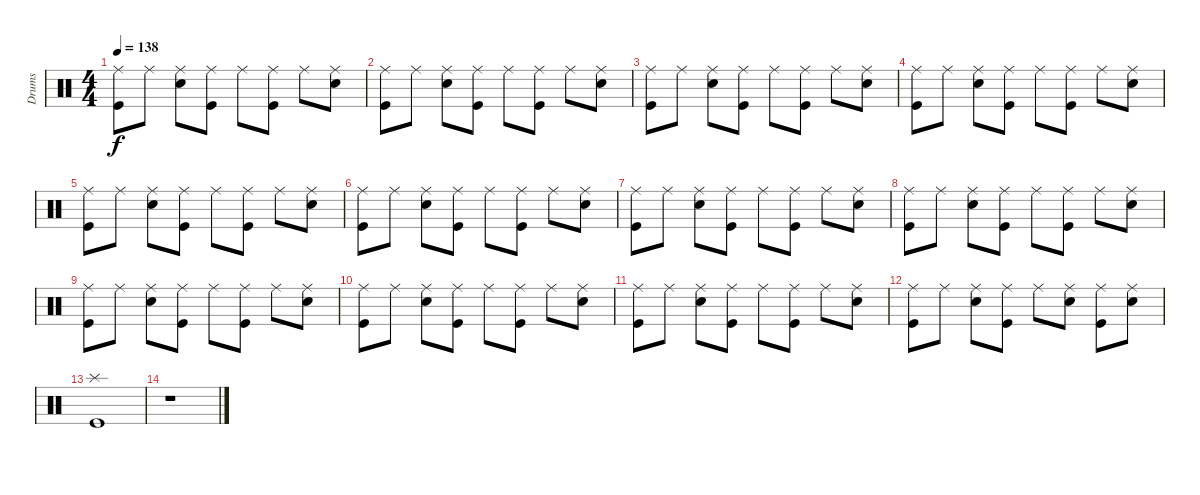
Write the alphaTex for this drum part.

\track ("Drums" "Drums") {instrument percussion}
\staff {score}
\articulation defaults
\ts (4 4)
\tempo 138
\clef neutral
\ks c
("Ride (middle)" "Kick (hit)").8{dy f} "Ride (middle)".8 ("Ride (middle)" "Snare (hit) 2").8 ("Ride (middle)" "Kick (hit)").8 "Ride (middle)".8 ("Ride (middle)" "Kick (hit)").8 "Ride (middle)".8 ("Ride (middle)" "Snare (hit) 2").8 |
("Ride (middle)" "Kick (hit)").8 "Ride (middle)".8 ("Ride (middle)" "Snare (hit) 2").8 ("Ride (middle)" "Kick (hit)").8 "Ride (middle)".8 ("Ride (middle)" "Kick (hit)").8 "Ride (middle)".8 ("Ride (middle)" "Snare (hit) 2").8 |
("Ride (middle)" "Kick (hit)").8 "Ride (middle)".8 ("Ride (middle)" "Snare (hit) 2").8 ("Ride (middle)" "Kick (hit)").8 "Ride (middle)".8 ("Ride (middle)" "Kick (hit)").8 "Ride (middle)".8 ("Ride (middle)" "Snare (hit) 2").8 |
("Ride (middle)" "Kick (hit)").8 "Ride (middle)".8 ("Ride (middle)" "Snare (hit) 2").8 ("Ride (middle)" "Kick (hit)").8 "Ride (middle)".8 ("Ride (middle)" "Kick (hit)").8 "Ride (middle)".8 ("Ride (middle)" "Snare (hit) 2").8 |
("Ride (middle)" "Kick (hit)").8 "Ride (middle)".8 ("Ride (middle)" "Snare (hit) 2").8 ("Ride (middle)" "Kick (hit)").8 "Ride (middle)".8 ("Ride (middle)" "Kick (hit)").8 "Ride (middle)".8 ("Ride (middle)" "Snare (hit) 2").8 |
("Ride (middle)" "Kick (hit)").8 "Ride (middle)".8 ("Ride (middle)" "Snare (hit) 2").8 ("Ride (middle)" "Kick (hit)").8 "Ride (middle)".8 ("Ride (middle)" "Kick (hit)").8 "Ride (middle)".8 ("Ride (middle)" "Snare (hit) 2").8 |
("Ride (middle)" "Kick (hit)").8 "Ride (middle)".8 ("Ride (middle)" "Snare (hit) 2").8 ("Ride (middle)" "Kick (hit)").8 "Ride (middle)".8 ("Ride (middle)" "Kick (hit)").8 "Ride (middle)".8 ("Ride (middle)" "Snare (hit) 2").8 |
("Ride (middle)" "Kick (hit)").8 "Ride (middle)".8 ("Ride (middle)" "Snare (hit) 2").8 ("Ride (middle)" "Kick (hit)").8 "Ride (middle)".8 ("Ride (middle)" "Kick (hit)").8 "Ride (middle)".8 ("Ride (middle)" "Snare (hit) 2").8 |
("Ride (middle)" "Kick (hit)").8 "Ride (middle)".8 ("Ride (middle)" "Snare (hit) 2").8 ("Ride (middle)" "Kick (hit)").8 "Ride (middle)".8 ("Ride (middle)" "Kick (hit)").8 "Ride (middle)".8 ("Ride (middle)" "Snare (hit) 2").8 |
("Ride (middle)" "Kick (hit)").8 "Ride (middle)".8 ("Ride (middle)" "Snare (hit) 2").8 ("Ride (middle)" "Kick (hit)").8 "Ride (middle)".8 ("Ride (middle)" "Kick (hit)").8 "Ride (middle)".8 ("Ride (middle)" "Snare (hit) 2").8 |
("Ride (middle)" "Kick (hit)").8 "Ride (middle)".8 ("Ride (middle)" "Snare (hit) 2").8 ("Ride (middle)" "Kick (hit)").8 "Ride (middle)".8 ("Ride (middle)" "Kick (hit)").8 "Ride (middle)".8 ("Ride (middle)" "Snare (hit) 2").8 |
("Ride (middle)" "Kick (hit)").8 "Ride (middle)".8 ("Ride (middle)" "Snare (hit) 2").8 ("Ride (middle)" "Kick (hit)").8 "Ride (middle)".8 ("Ride (middle)" "Snare (hit) 2").8 ("Ride (middle)" "Kick (hit)").8 ("Ride (middle)" "Snare (hit) 2").8 |
("Splash (hit)" "Kick (hit)").1 |
r.1
